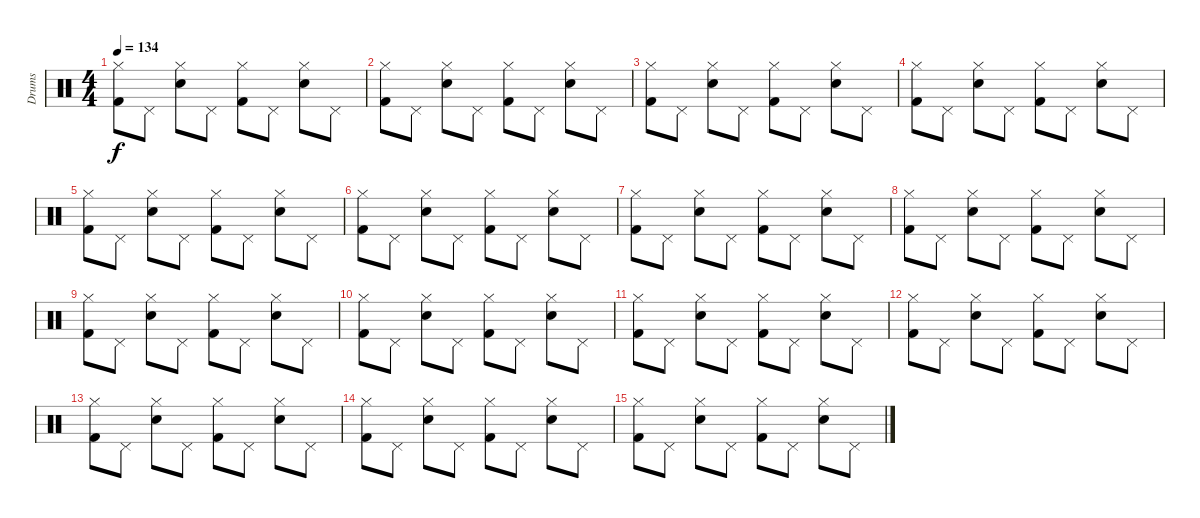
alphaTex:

\track ("Drums" "Drums") {instrument percussion}
\staff {score}
\articulation defaults
\ts (4 4)
\tempo 134
\clef neutral
\ks c
("Hi-Hat (closed)" "Kick (hit) 2").8{dy f} "Pedal Hi-Hat (hit)".8 ("Hi-Hat (closed)" "Snare (hit) 2").8 "Pedal Hi-Hat (hit)".8 ("Hi-Hat (closed)" "Kick (hit) 2").8 "Pedal Hi-Hat (hit)".8 ("Hi-Hat (closed)" "Snare (hit) 2").8 "Pedal Hi-Hat (hit)".8 |
("Hi-Hat (closed)" "Kick (hit) 2").8 "Pedal Hi-Hat (hit)".8 ("Hi-Hat (closed)" "Snare (hit) 2").8 "Pedal Hi-Hat (hit)".8 ("Hi-Hat (closed)" "Kick (hit) 2").8 "Pedal Hi-Hat (hit)".8 ("Hi-Hat (closed)" "Snare (hit) 2").8 "Pedal Hi-Hat (hit)".8 |
("Hi-Hat (closed)" "Kick (hit) 2").8 "Pedal Hi-Hat (hit)".8 ("Hi-Hat (closed)" "Snare (hit) 2").8 "Pedal Hi-Hat (hit)".8 ("Hi-Hat (closed)" "Kick (hit) 2").8 "Pedal Hi-Hat (hit)".8 ("Hi-Hat (closed)" "Snare (hit) 2").8 "Pedal Hi-Hat (hit)".8 |
("Hi-Hat (closed)" "Kick (hit) 2").8 "Pedal Hi-Hat (hit)".8 ("Hi-Hat (closed)" "Snare (hit) 2").8 "Pedal Hi-Hat (hit)".8 ("Hi-Hat (closed)" "Kick (hit) 2").8 "Pedal Hi-Hat (hit)".8 ("Hi-Hat (closed)" "Snare (hit) 2").8 "Pedal Hi-Hat (hit)".8 |
("Hi-Hat (closed)" "Kick (hit) 2").8 "Pedal Hi-Hat (hit)".8 ("Hi-Hat (closed)" "Snare (hit) 2").8 "Pedal Hi-Hat (hit)".8 ("Hi-Hat (closed)" "Kick (hit) 2").8 "Pedal Hi-Hat (hit)".8 ("Hi-Hat (closed)" "Snare (hit) 2").8 "Pedal Hi-Hat (hit)".8 |
("Hi-Hat (closed)" "Kick (hit) 2").8 "Pedal Hi-Hat (hit)".8 ("Hi-Hat (closed)" "Snare (hit) 2").8 "Pedal Hi-Hat (hit)".8 ("Hi-Hat (closed)" "Kick (hit) 2").8 "Pedal Hi-Hat (hit)".8 ("Hi-Hat (closed)" "Snare (hit) 2").8 "Pedal Hi-Hat (hit)".8 |
("Hi-Hat (closed)" "Kick (hit) 2").8 "Pedal Hi-Hat (hit)".8 ("Hi-Hat (closed)" "Snare (hit) 2").8 "Pedal Hi-Hat (hit)".8 ("Hi-Hat (closed)" "Kick (hit) 2").8 "Pedal Hi-Hat (hit)".8 ("Hi-Hat (closed)" "Snare (hit) 2").8 "Pedal Hi-Hat (hit)".8 |
("Hi-Hat (closed)" "Kick (hit) 2").8 "Pedal Hi-Hat (hit)".8 ("Hi-Hat (closed)" "Snare (hit) 2").8 "Pedal Hi-Hat (hit)".8 ("Hi-Hat (closed)" "Kick (hit) 2").8 "Pedal Hi-Hat (hit)".8 ("Hi-Hat (closed)" "Snare (hit) 2").8 "Pedal Hi-Hat (hit)".8 |
("Hi-Hat (closed)" "Kick (hit) 2").8 "Pedal Hi-Hat (hit)".8 ("Hi-Hat (closed)" "Snare (hit) 2").8 "Pedal Hi-Hat (hit)".8 ("Hi-Hat (closed)" "Kick (hit) 2").8 "Pedal Hi-Hat (hit)".8 ("Hi-Hat (closed)" "Snare (hit) 2").8 "Pedal Hi-Hat (hit)".8 |
("Hi-Hat (closed)" "Kick (hit) 2").8 "Pedal Hi-Hat (hit)".8 ("Hi-Hat (closed)" "Snare (hit) 2").8 "Pedal Hi-Hat (hit)".8 ("Hi-Hat (closed)" "Kick (hit) 2").8 "Pedal Hi-Hat (hit)".8 ("Hi-Hat (closed)" "Snare (hit) 2").8 "Pedal Hi-Hat (hit)".8 |
("Hi-Hat (closed)" "Kick (hit) 2").8 "Pedal Hi-Hat (hit)".8 ("Hi-Hat (closed)" "Snare (hit) 2").8 "Pedal Hi-Hat (hit)".8 ("Hi-Hat (closed)" "Kick (hit) 2").8 "Pedal Hi-Hat (hit)".8 ("Hi-Hat (closed)" "Snare (hit) 2").8 "Pedal Hi-Hat (hit)".8 |
("Hi-Hat (closed)" "Kick (hit) 2").8 "Pedal Hi-Hat (hit)".8 ("Hi-Hat (closed)" "Snare (hit) 2").8 "Pedal Hi-Hat (hit)".8 ("Hi-Hat (closed)" "Kick (hit) 2").8 "Pedal Hi-Hat (hit)".8 ("Hi-Hat (closed)" "Snare (hit) 2").8 "Pedal Hi-Hat (hit)".8 |
("Hi-Hat (closed)" "Kick (hit) 2").8 "Pedal Hi-Hat (hit)".8 ("Hi-Hat (closed)" "Snare (hit) 2").8 "Pedal Hi-Hat (hit)".8 ("Hi-Hat (closed)" "Kick (hit) 2").8 "Pedal Hi-Hat (hit)".8 ("Hi-Hat (closed)" "Snare (hit) 2").8 "Pedal Hi-Hat (hit)".8 |
("Hi-Hat (closed)" "Kick (hit) 2").8{volume 0} "Pedal Hi-Hat (hit)".8 ("Hi-Hat (closed)" "Snare (hit) 2").8 "Pedal Hi-Hat (hit)".8 ("Hi-Hat (closed)" "Kick (hit) 2").8 "Pedal Hi-Hat (hit)".8 ("Hi-Hat (closed)" "Snare (hit) 2").8 "Pedal Hi-Hat (hit)".8 |
("Hi-Hat (closed)" "Kick (hit) 2").8 "Pedal Hi-Hat (hit)".8 ("Hi-Hat (closed)" "Snare (hit) 2").8 "Pedal Hi-Hat (hit)".8 ("Hi-Hat (closed)" "Kick (hit) 2").8 "Pedal Hi-Hat (hit)".8 ("Hi-Hat (closed)" "Snare (hit) 2").8 "Pedal Hi-Hat (hit)".8
